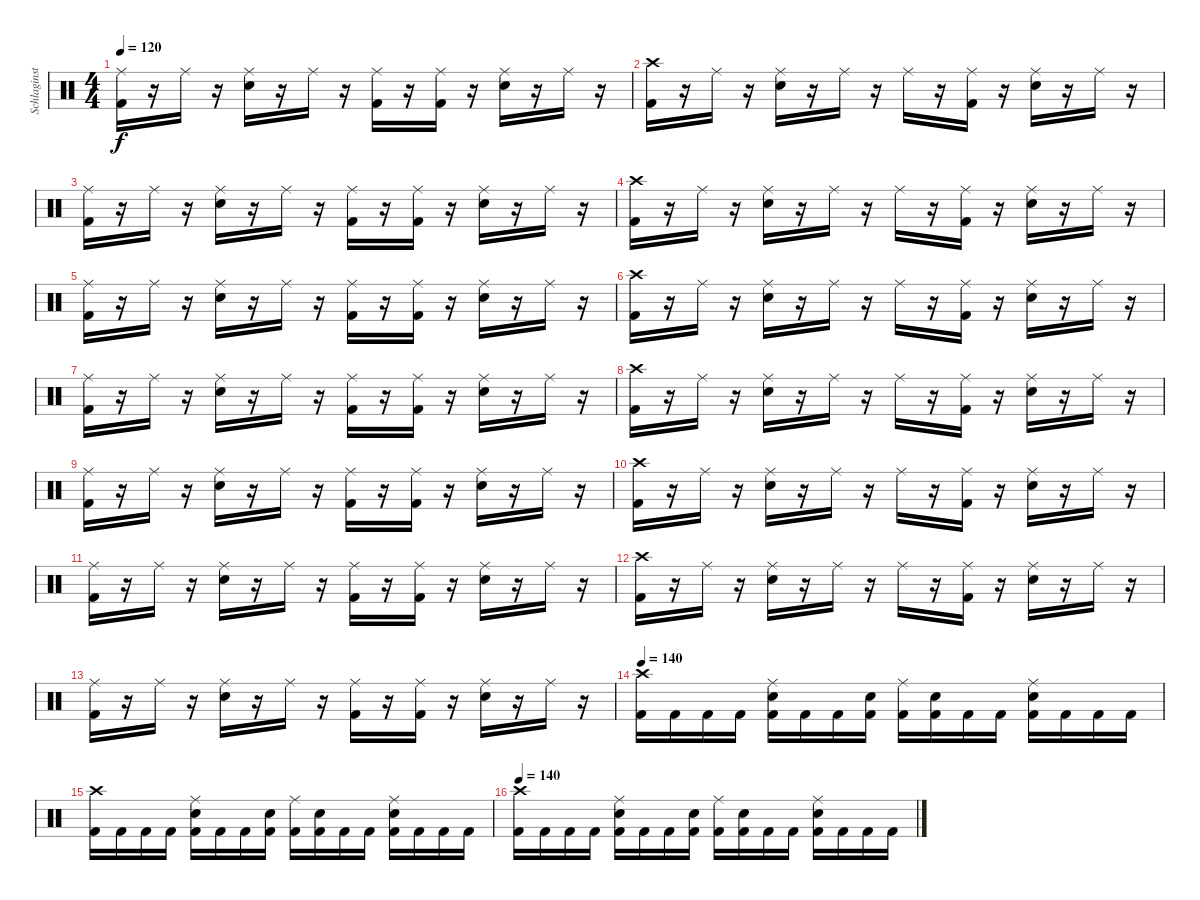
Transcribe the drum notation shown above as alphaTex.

\track ("Schlaginstrumente - Auswahl" "Schlaginst") {instrument percussion}
\staff {score}
\articulation defaults
\ts (4 4)
\tempo 120
\clef neutral
\ks c
("Ride (middle)" "Kick (hit) 2").16{dy f} r.16 "Ride (middle)".16 r.16 ("Ride (middle)" "Snare (hit) 2").16 r.16 "Ride (middle)".16 r.16 ("Ride (middle)" "Kick (hit) 2").16 r.16 ("Ride (middle)" "Kick (hit) 2").16 r.16 ("Ride (middle)" "Snare (hit) 2").16 r.16 "Ride (middle)".16 r.16 |
("Crash high (hit)" "Kick (hit) 2").16 r.16 "Ride (middle)".16 r.16 ("Ride (middle)" "Snare (hit) 2").16 r.16 "Ride (middle)".16 r.16 "Ride (middle)".16 r.16 ("Ride (middle)" "Kick (hit) 2").16 r.16 ("Ride (middle)" "Snare (hit) 2").16 r.16 "Ride (middle)".16 r.16 |
("Ride (middle)" "Kick (hit) 2").16 r.16 "Ride (middle)".16 r.16 ("Ride (middle)" "Snare (hit) 2").16 r.16 "Ride (middle)".16 r.16 ("Ride (middle)" "Kick (hit) 2").16 r.16 ("Ride (middle)" "Kick (hit) 2").16 r.16 ("Ride (middle)" "Snare (hit) 2").16 r.16 "Ride (middle)".16 r.16 |
("Crash high (hit)" "Kick (hit) 2").16 r.16 "Ride (middle)".16 r.16 ("Ride (middle)" "Snare (hit) 2").16 r.16 "Ride (middle)".16 r.16 "Ride (middle)".16 r.16 ("Ride (middle)" "Kick (hit) 2").16 r.16 ("Ride (middle)" "Snare (hit) 2").16 r.16 "Ride (middle)".16 r.16 |
("Ride (middle)" "Kick (hit) 2").16 r.16 "Ride (middle)".16 r.16 ("Ride (middle)" "Snare (hit) 2").16 r.16 "Ride (middle)".16 r.16 ("Ride (middle)" "Kick (hit) 2").16 r.16 ("Ride (middle)" "Kick (hit) 2").16 r.16 ("Ride (middle)" "Snare (hit) 2").16 r.16 "Ride (middle)".16 r.16 |
("Crash high (hit)" "Kick (hit) 2").16 r.16 "Ride (middle)".16 r.16 ("Ride (middle)" "Snare (hit) 2").16 r.16 "Ride (middle)".16 r.16 "Ride (middle)".16 r.16 ("Ride (middle)" "Kick (hit) 2").16 r.16 ("Ride (middle)" "Snare (hit) 2").16 r.16 "Ride (middle)".16 r.16 |
("Ride (middle)" "Kick (hit) 2").16 r.16 "Ride (middle)".16 r.16 ("Ride (middle)" "Snare (hit) 2").16 r.16 "Ride (middle)".16 r.16 ("Ride (middle)" "Kick (hit) 2").16 r.16 ("Ride (middle)" "Kick (hit) 2").16 r.16 ("Ride (middle)" "Snare (hit) 2").16 r.16 "Ride (middle)".16 r.16 |
("Crash high (hit)" "Kick (hit) 2").16 r.16 "Ride (middle)".16 r.16 ("Ride (middle)" "Snare (hit) 2").16 r.16 "Ride (middle)".16 r.16 "Ride (middle)".16 r.16 ("Ride (middle)" "Kick (hit) 2").16 r.16 ("Ride (middle)" "Snare (hit) 2").16 r.16 "Ride (middle)".16 r.16 |
("Ride (middle)" "Kick (hit) 2").16 r.16 "Ride (middle)".16 r.16 ("Ride (middle)" "Snare (hit) 2").16 r.16 "Ride (middle)".16 r.16 ("Ride (middle)" "Kick (hit) 2").16 r.16 ("Ride (middle)" "Kick (hit) 2").16 r.16 ("Ride (middle)" "Snare (hit) 2").16 r.16 "Ride (middle)".16 r.16 |
("Crash high (hit)" "Kick (hit) 2").16 r.16 "Ride (middle)".16 r.16 ("Ride (middle)" "Snare (hit) 2").16 r.16 "Ride (middle)".16 r.16 "Ride (middle)".16 r.16 ("Ride (middle)" "Kick (hit) 2").16 r.16 ("Ride (middle)" "Snare (hit) 2").16 r.16 "Ride (middle)".16 r.16 |
("Ride (middle)" "Kick (hit) 2").16 r.16 "Ride (middle)".16 r.16 ("Ride (middle)" "Snare (hit) 2").16 r.16 "Ride (middle)".16 r.16 ("Ride (middle)" "Kick (hit) 2").16 r.16 ("Ride (middle)" "Kick (hit) 2").16 r.16 ("Ride (middle)" "Snare (hit) 2").16 r.16 "Ride (middle)".16 r.16 |
("Crash high (hit)" "Kick (hit) 2").16 r.16 "Ride (middle)".16 r.16 ("Ride (middle)" "Snare (hit) 2").16 r.16 "Ride (middle)".16 r.16 "Ride (middle)".16 r.16 ("Ride (middle)" "Kick (hit) 2").16 r.16 ("Ride (middle)" "Snare (hit) 2").16 r.16 "Ride (middle)".16 r.16 |
("Ride (middle)" "Kick (hit) 2").16 r.16 "Ride (middle)".16 r.16 ("Ride (middle)" "Snare (hit) 2").16 r.16 "Ride (middle)".16 r.16 ("Ride (middle)" "Kick (hit) 2").16 r.16 ("Ride (middle)" "Kick (hit) 2").16 r.16 ("Ride (middle)" "Snare (hit) 2").16 r.16 "Ride (middle)".16 r.16 |
\tempo 140
("Crash high (hit)" "Kick (hit) 2").16 "Kick (hit) 2".16 "Kick (hit) 2".16 "Kick (hit) 2".16 ("Ride (middle)" "Snare (hit) 2" "Kick (hit) 2").16 "Kick (hit) 2".16 "Kick (hit) 2".16 ("Snare (hit) 2" "Kick (hit) 2").16 ("Ride (middle)" "Kick (hit) 2").16 ("Snare (hit) 2" "Kick (hit) 2").16 "Kick (hit) 2".16 "Kick (hit) 2".16 ("Ride (middle)" "Snare (hit) 2" "Kick (hit) 2").16 "Kick (hit) 2".16 "Kick (hit) 2".16 "Kick (hit) 2".16 |
("Crash high (hit)" "Kick (hit) 2").16 "Kick (hit) 2".16 "Kick (hit) 2".16 "Kick (hit) 2".16 ("Ride (middle)" "Snare (hit) 2" "Kick (hit) 2").16 "Kick (hit) 2".16 "Kick (hit) 2".16 ("Snare (hit) 2" "Kick (hit) 2").16 ("Ride (middle)" "Kick (hit) 2").16 ("Snare (hit) 2" "Kick (hit) 2").16 "Kick (hit) 2".16 "Kick (hit) 2".16 ("Ride (middle)" "Snare (hit) 2" "Kick (hit) 2").16 "Kick (hit) 2".16 "Kick (hit) 2".16 "Kick (hit) 2".16 |
\tempo 140
("Crash high (hit)" "Kick (hit) 2").16 "Kick (hit) 2".16 "Kick (hit) 2".16 "Kick (hit) 2".16 ("Ride (middle)" "Snare (hit) 2" "Kick (hit) 2").16 "Kick (hit) 2".16 "Kick (hit) 2".16 ("Snare (hit) 2" "Kick (hit) 2").16 ("Ride (middle)" "Kick (hit) 2").16 ("Snare (hit) 2" "Kick (hit) 2").16 "Kick (hit) 2".16 "Kick (hit) 2".16 ("Ride (middle)" "Snare (hit) 2" "Kick (hit) 2").16 "Kick (hit) 2".16 "Kick (hit) 2".16 "Kick (hit) 2".16
